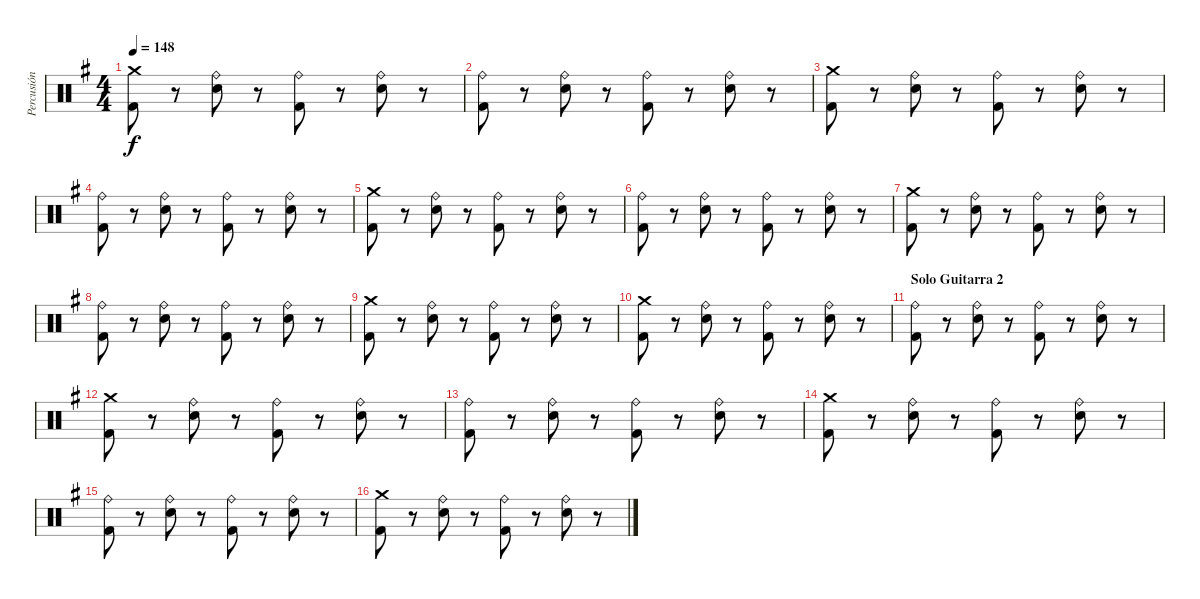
\track ("Percusión" "Percusión") {instrument percussion}
\staff {score}
\articulation defaults
\ts (4 4)
\tempo 148
\clef neutral
\ks g
("Crash medium (hit)" "Kick (hit) 2").8{dy f} r.8 ("Ride (bell)" "Snare (hit) 2").8 r.8 ("Ride (bell)" "Kick (hit) 2").8 r.8 ("Ride (bell)" "Snare (hit) 2").8 r.8 |
("Ride (bell)" "Kick (hit) 2").8 r.8 ("Ride (bell)" "Snare (hit) 2").8 r.8 ("Ride (bell)" "Kick (hit) 2").8 r.8 ("Ride (bell)" "Snare (hit) 2").8 r.8 |
("Crash medium (hit)" "Kick (hit) 2").8 r.8 ("Ride (bell)" "Snare (hit) 2").8 r.8 ("Ride (bell)" "Kick (hit) 2").8 r.8 ("Ride (bell)" "Snare (hit) 2").8 r.8 |
("Ride (bell)" "Kick (hit) 2").8 r.8 ("Ride (bell)" "Snare (hit) 2").8 r.8 ("Ride (bell)" "Kick (hit) 2").8 r.8 ("Ride (bell)" "Snare (hit) 2").8 r.8 |
("Crash medium (hit)" "Kick (hit) 2").8 r.8 ("Ride (bell)" "Snare (hit) 2").8 r.8 ("Ride (bell)" "Kick (hit) 2").8 r.8 ("Ride (bell)" "Snare (hit) 2").8 r.8 |
("Ride (bell)" "Kick (hit) 2").8 r.8 ("Ride (bell)" "Snare (hit) 2").8 r.8 ("Ride (bell)" "Kick (hit) 2").8 r.8 ("Ride (bell)" "Snare (hit) 2").8 r.8 |
("Crash medium (hit)" "Kick (hit) 2").8 r.8 ("Ride (bell)" "Snare (hit) 2").8 r.8 ("Ride (bell)" "Kick (hit) 2").8 r.8 ("Ride (bell)" "Snare (hit) 2").8 r.8 |
("Ride (bell)" "Kick (hit) 2").8 r.8 ("Ride (bell)" "Snare (hit) 2").8 r.8 ("Ride (bell)" "Kick (hit) 2").8 r.8 ("Ride (bell)" "Snare (hit) 2").8 r.8 |
("Crash medium (hit)" "Kick (hit) 2").8 r.8 ("Ride (bell)" "Snare (hit) 2").8 r.8 ("Ride (bell)" "Kick (hit) 2").8 r.8 ("Ride (bell)" "Snare (hit) 2").8 r.8 |
("Crash medium (hit)" "Kick (hit) 2").8 r.8 ("Ride (bell)" "Snare (hit) 2").8 r.8 ("Ride (bell)" "Kick (hit) 2").8 r.8 ("Ride (bell)" "Snare (hit) 2").8 r.8 |
\section ("" "Solo Guitarra 2")
("Ride (bell)" "Kick (hit) 2").8 r.8 ("Ride (bell)" "Snare (hit) 2").8 r.8 ("Ride (bell)" "Kick (hit) 2").8 r.8 ("Ride (bell)" "Snare (hit) 2").8 r.8 |
("Crash medium (hit)" "Kick (hit) 2").8 r.8 ("Ride (bell)" "Snare (hit) 2").8 r.8 ("Ride (bell)" "Kick (hit) 2").8 r.8 ("Ride (bell)" "Snare (hit) 2").8 r.8 |
("Ride (bell)" "Kick (hit) 2").8 r.8 ("Ride (bell)" "Snare (hit) 2").8 r.8 ("Ride (bell)" "Kick (hit) 2").8 r.8 ("Ride (bell)" "Snare (hit) 2").8 r.8 |
("Crash medium (hit)" "Kick (hit) 2").8 r.8 ("Ride (bell)" "Snare (hit) 2").8 r.8 ("Ride (bell)" "Kick (hit) 2").8 r.8 ("Ride (bell)" "Snare (hit) 2").8 r.8 |
("Ride (bell)" "Kick (hit) 2").8 r.8 ("Ride (bell)" "Snare (hit) 2").8 r.8 ("Ride (bell)" "Kick (hit) 2").8 r.8 ("Ride (bell)" "Snare (hit) 2").8 r.8 |
("Crash medium (hit)" "Kick (hit) 2").8 r.8 ("Ride (bell)" "Snare (hit) 2").8 r.8 ("Ride (bell)" "Kick (hit) 2").8 r.8 ("Ride (bell)" "Snare (hit) 2").8 r.8
